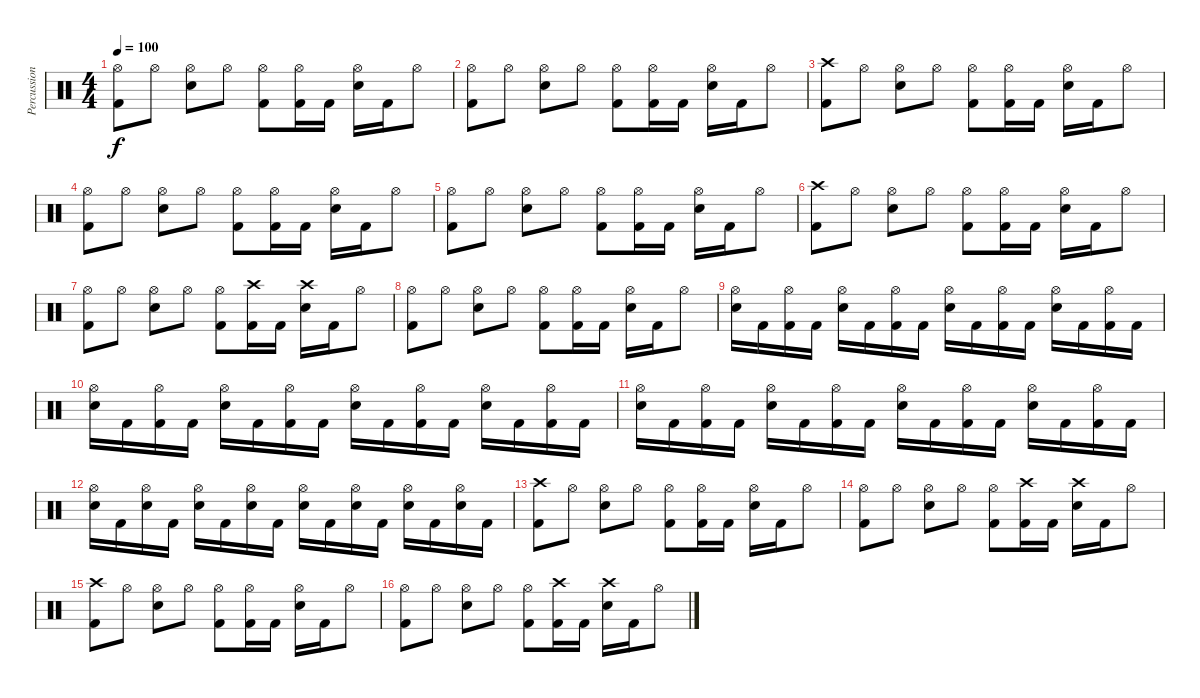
\track ("Percussion" "Percussion") {instrument percussion}
\staff {score}
\articulation defaults
\ts (4 4)
\tempo 100
\clef neutral
\ks c
("Hi-Hat (open)" "Kick (hit) 2").8{dy f} "Hi-Hat (open)".8 ("Hi-Hat (open)" "Electric Snare (hit)").8 "Hi-Hat (open)".8 ("Hi-Hat (open)" "Kick (hit) 2").8 ("Hi-Hat (open)" "Kick (hit) 2").16 "Kick (hit) 2".16 ("Hi-Hat (open)" "Electric Snare (hit)").16 "Kick (hit) 2".16 "Hi-Hat (open)".8 |
("Hi-Hat (open)" "Kick (hit) 2").8 "Hi-Hat (open)".8 ("Hi-Hat (open)" "Electric Snare (hit)").8 "Hi-Hat (open)".8 ("Hi-Hat (open)" "Kick (hit) 2").8 ("Hi-Hat (open)" "Kick (hit) 2").16 "Kick (hit) 2".16 ("Hi-Hat (open)" "Electric Snare (hit)").16 "Kick (hit) 2".16 "Hi-Hat (open)".8 |
("Crash high (hit)" "Kick (hit) 2").8 "Hi-Hat (open)".8 ("Hi-Hat (open)" "Electric Snare (hit)").8 "Hi-Hat (open)".8 ("Hi-Hat (open)" "Kick (hit) 2").8 ("Hi-Hat (open)" "Kick (hit) 2").16 "Kick (hit) 2".16 ("Hi-Hat (open)" "Electric Snare (hit)").16 "Kick (hit) 2".16 "Hi-Hat (open)".8 |
("Hi-Hat (open)" "Kick (hit) 2").8 "Hi-Hat (open)".8 ("Hi-Hat (open)" "Electric Snare (hit)").8 "Hi-Hat (open)".8 ("Hi-Hat (open)" "Kick (hit) 2").8 ("Hi-Hat (open)" "Kick (hit) 2").16 "Kick (hit) 2".16 ("Hi-Hat (open)" "Electric Snare (hit)").16 "Kick (hit) 2".16 "Hi-Hat (open)".8 |
("Hi-Hat (open)" "Kick (hit) 2").8 "Hi-Hat (open)".8 ("Hi-Hat (open)" "Electric Snare (hit)").8 "Hi-Hat (open)".8 ("Hi-Hat (open)" "Kick (hit) 2").8 ("Hi-Hat (open)" "Kick (hit) 2").16 "Kick (hit) 2".16 ("Hi-Hat (open)" "Electric Snare (hit)").16 "Kick (hit) 2".16 "Hi-Hat (open)".8 |
("Crash high (hit)" "Kick (hit) 2").8 "Hi-Hat (open)".8 ("Hi-Hat (open)" "Electric Snare (hit)").8 "Hi-Hat (open)".8 ("Hi-Hat (open)" "Kick (hit) 2").8 ("Hi-Hat (open)" "Kick (hit) 2").16 "Kick (hit) 2".16 ("Hi-Hat (open)" "Electric Snare (hit)").16 "Kick (hit) 2".16 "Hi-Hat (open)".8 |
("Hi-Hat (open)" "Kick (hit) 2").8 "Hi-Hat (open)".8 ("Hi-Hat (open)" "Electric Snare (hit)").8 "Hi-Hat (open)".8 ("Hi-Hat (open)" "Kick (hit) 2").8 ("Crash high (hit)" "Kick (hit) 2").16 "Kick (hit) 2".16 ("Crash high (hit)" "Electric Snare (hit)").16 "Kick (hit) 2".16 "Hi-Hat (open)".8 |
("Hi-Hat (open)" "Kick (hit) 2").8 "Hi-Hat (open)".8 ("Hi-Hat (open)" "Electric Snare (hit)").8 "Hi-Hat (open)".8 ("Hi-Hat (open)" "Kick (hit) 2").8 ("Hi-Hat (open)" "Kick (hit) 2").16 "Kick (hit) 2".16 ("Hi-Hat (open)" "Electric Snare (hit)").16 "Kick (hit) 2".16 "Hi-Hat (open)".8 |
("Electric Snare (hit)" "Hi-Hat (open)").16 "Kick (hit) 2".16 ("Kick (hit) 2" "Hi-Hat (open)").16 "Kick (hit) 2".16 ("Electric Snare (hit)" "Hi-Hat (open)").16 "Kick (hit) 2".16 ("Kick (hit) 2" "Hi-Hat (open)").16 "Kick (hit) 2".16 ("Electric Snare (hit)" "Hi-Hat (open)").16 "Kick (hit) 2".16 ("Kick (hit) 2" "Hi-Hat (open)").16 "Kick (hit) 2".16 ("Electric Snare (hit)" "Hi-Hat (open)").16 "Kick (hit) 2".16 ("Kick (hit) 2" "Hi-Hat (open)").16 "Kick (hit) 2".16 |
("Electric Snare (hit)" "Hi-Hat (open)").16 "Kick (hit) 2".16 ("Kick (hit) 2" "Hi-Hat (open)").16 "Kick (hit) 2".16 ("Electric Snare (hit)" "Hi-Hat (open)").16 "Kick (hit) 2".16 ("Kick (hit) 2" "Hi-Hat (open)").16 "Kick (hit) 2".16 ("Electric Snare (hit)" "Hi-Hat (open)").16 "Kick (hit) 2".16 ("Kick (hit) 2" "Hi-Hat (open)").16 "Kick (hit) 2".16 ("Electric Snare (hit)" "Hi-Hat (open)").16 "Kick (hit) 2".16 ("Kick (hit) 2" "Hi-Hat (open)").16 "Kick (hit) 2".16 |
("Electric Snare (hit)" "Hi-Hat (open)").16 "Kick (hit) 2".16 ("Kick (hit) 2" "Hi-Hat (open)").16 "Kick (hit) 2".16 ("Electric Snare (hit)" "Hi-Hat (open)").16 "Kick (hit) 2".16 ("Kick (hit) 2" "Hi-Hat (open)").16 "Kick (hit) 2".16 ("Electric Snare (hit)" "Hi-Hat (open)").16 "Kick (hit) 2".16 ("Kick (hit) 2" "Hi-Hat (open)").16 "Kick (hit) 2".16 ("Electric Snare (hit)" "Hi-Hat (open)").16 "Kick (hit) 2".16 ("Kick (hit) 2" "Hi-Hat (open)").16 "Kick (hit) 2".16 |
("Electric Snare (hit)" "Hi-Hat (open)").16 "Kick (hit) 2".16 ("Electric Snare (hit)" "Hi-Hat (open)").16 "Kick (hit) 2".16 ("Electric Snare (hit)" "Hi-Hat (open)").16 "Kick (hit) 2".16 ("Electric Snare (hit)" "Hi-Hat (open)").16 "Kick (hit) 2".16 ("Electric Snare (hit)" "Hi-Hat (open)").16 "Kick (hit) 2".16 ("Electric Snare (hit)" "Hi-Hat (open)").16 "Kick (hit) 2".16 ("Electric Snare (hit)" "Hi-Hat (open)").16 "Kick (hit) 2".16 ("Electric Snare (hit)" "Hi-Hat (open)").16 "Kick (hit) 2".16 |
("Crash high (hit)" "Kick (hit) 2").8 "Hi-Hat (open)".8 ("Hi-Hat (open)" "Electric Snare (hit)").8 "Hi-Hat (open)".8 ("Hi-Hat (open)" "Kick (hit) 2").8 ("Hi-Hat (open)" "Kick (hit) 2").16 "Kick (hit) 2".16 ("Hi-Hat (open)" "Electric Snare (hit)").16 "Kick (hit) 2".16 "Hi-Hat (open)".8 |
("Hi-Hat (open)" "Kick (hit) 2").8 "Hi-Hat (open)".8 ("Hi-Hat (open)" "Electric Snare (hit)").8 "Hi-Hat (open)".8 ("Hi-Hat (open)" "Kick (hit) 2").8 ("Crash high (hit)" "Kick (hit) 2").16 "Kick (hit) 2".16 ("Crash high (hit)" "Electric Snare (hit)").16 "Kick (hit) 2".16 "Hi-Hat (open)".8 |
("Crash high (hit)" "Kick (hit) 2").8 "Hi-Hat (open)".8 ("Hi-Hat (open)" "Electric Snare (hit)").8 "Hi-Hat (open)".8 ("Hi-Hat (open)" "Kick (hit) 2").8 ("Hi-Hat (open)" "Kick (hit) 2").16 "Kick (hit) 2".16 ("Hi-Hat (open)" "Electric Snare (hit)").16 "Kick (hit) 2".16 "Hi-Hat (open)".8 |
("Hi-Hat (open)" "Kick (hit) 2").8 "Hi-Hat (open)".8 ("Hi-Hat (open)" "Electric Snare (hit)").8 "Hi-Hat (open)".8 ("Hi-Hat (open)" "Kick (hit) 2").8 ("Crash high (hit)" "Kick (hit) 2").16 "Kick (hit) 2".16 ("Crash high (hit)" "Electric Snare (hit)").16 "Kick (hit) 2".16 "Hi-Hat (open)".8
